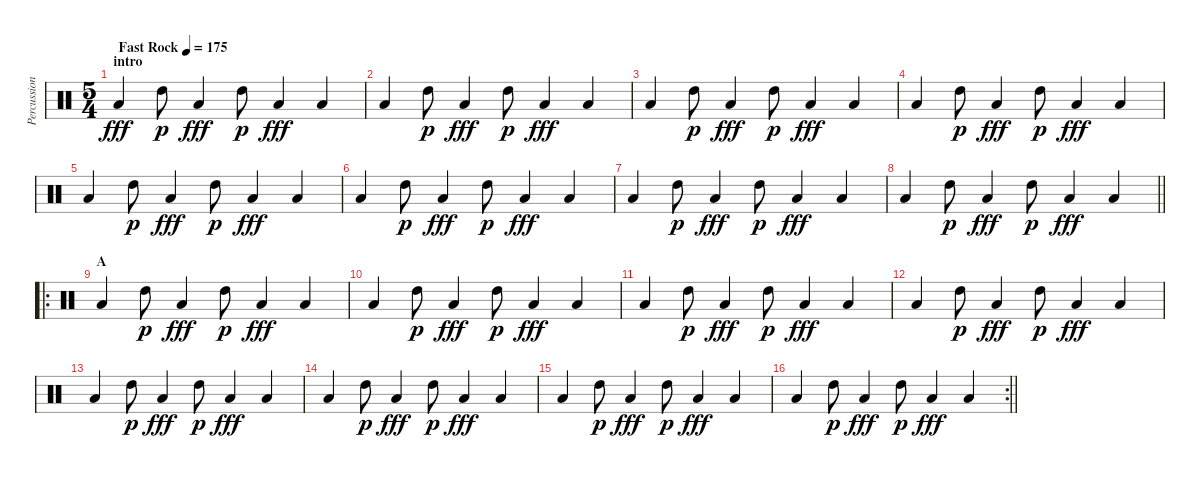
\track ("Percussion" "Percussion") {instrument percussion}
\staff {score}
\articulation defaults
\ts (5 4)
\section ("" "intro")
\tempo (175 "Fast Rock")
\clef neutral
\ks c "Low Tom (hit)".4{dy fff} "High Tom (hit)".8{dy p} "Low Tom (hit)".4{dy fff} "High Tom (hit)".8{dy p} "Low Tom (hit)".4{dy fff} "Low Tom (hit)".4
|
"Low Tom (hit)".4 "High Tom (hit)".8{dy p} "Low Tom (hit)".4{dy fff} "High Tom (hit)".8{dy p} "Low Tom (hit)".4{dy fff} "Low Tom (hit)".4 |
"Low Tom (hit)".4 "High Tom (hit)".8{dy p} "Low Tom (hit)".4{dy fff} "High Tom (hit)".8{dy p} "Low Tom (hit)".4{dy fff} "Low Tom (hit)".4 |
"Low Tom (hit)".4 "High Tom (hit)".8{dy p} "Low Tom (hit)".4{dy fff} "High Tom (hit)".8{dy p} "Low Tom (hit)".4{dy fff} "Low Tom (hit)".4 |
"Low Tom (hit)".4 "High Tom (hit)".8{dy p} "Low Tom (hit)".4{dy fff} "High Tom (hit)".8{dy p} "Low Tom (hit)".4{dy fff} "Low Tom (hit)".4 |
"Low Tom (hit)".4 "High Tom (hit)".8{dy p} "Low Tom (hit)".4{dy fff} "High Tom (hit)".8{dy p} "Low Tom (hit)".4{dy fff} "Low Tom (hit)".4 |
"Low Tom (hit)".4 "High Tom (hit)".8{dy p} "Low Tom (hit)".4{dy fff} "High Tom (hit)".8{dy p} "Low Tom (hit)".4{dy fff} "Low Tom (hit)".4 |
\barLineRight lightlight "Low Tom (hit)".4 "High Tom (hit)".8{dy p} "Low Tom (hit)".4{dy fff} "High Tom (hit)".8{dy p} "Low Tom (hit)".4{dy fff} "Low Tom (hit)".4
|
\ro
\section ("" "A")
"Low Tom (hit)".4 "High Tom (hit)".8{dy p} "Low Tom (hit)".4{dy fff} "High Tom (hit)".8{dy p} "Low Tom (hit)".4{dy fff} "Low Tom (hit)".4 |
"Low Tom (hit)".4 "High Tom (hit)".8{dy p} "Low Tom (hit)".4{dy fff} "High Tom (hit)".8{dy p} "Low Tom (hit)".4{dy fff} "Low Tom (hit)".4 |
"Low Tom (hit)".4 "High Tom (hit)".8{dy p} "Low Tom (hit)".4{dy fff} "High Tom (hit)".8{dy p} "Low Tom (hit)".4{dy fff} "Low Tom (hit)".4 |
"Low Tom (hit)".4 "High Tom (hit)".8{dy p} "Low Tom (hit)".4{dy fff} "High Tom (hit)".8{dy p} "Low Tom (hit)".4{dy fff} "Low Tom (hit)".4 |
"Low Tom (hit)".4 "High Tom (hit)".8{dy p} "Low Tom (hit)".4{dy fff} "High Tom (hit)".8{dy p} "Low Tom (hit)".4{dy fff} "Low Tom (hit)".4 |
"Low Tom (hit)".4 "High Tom (hit)".8{dy p} "Low Tom (hit)".4{dy fff} "High Tom (hit)".8{dy p} "Low Tom (hit)".4{dy fff} "Low Tom (hit)".4 |
"Low Tom (hit)".4 "High Tom (hit)".8{dy p} "Low Tom (hit)".4{dy fff} "High Tom (hit)".8{dy p} "Low Tom (hit)".4{dy fff} "Low Tom (hit)".4 |
\rc 2
\barLineRight lightlight "Low Tom (hit)".4 "High Tom (hit)".8{dy p} "Low Tom (hit)".4{dy fff} "High Tom (hit)".8{dy p} "Low Tom (hit)".4{dy fff} "Low Tom (hit)".4
